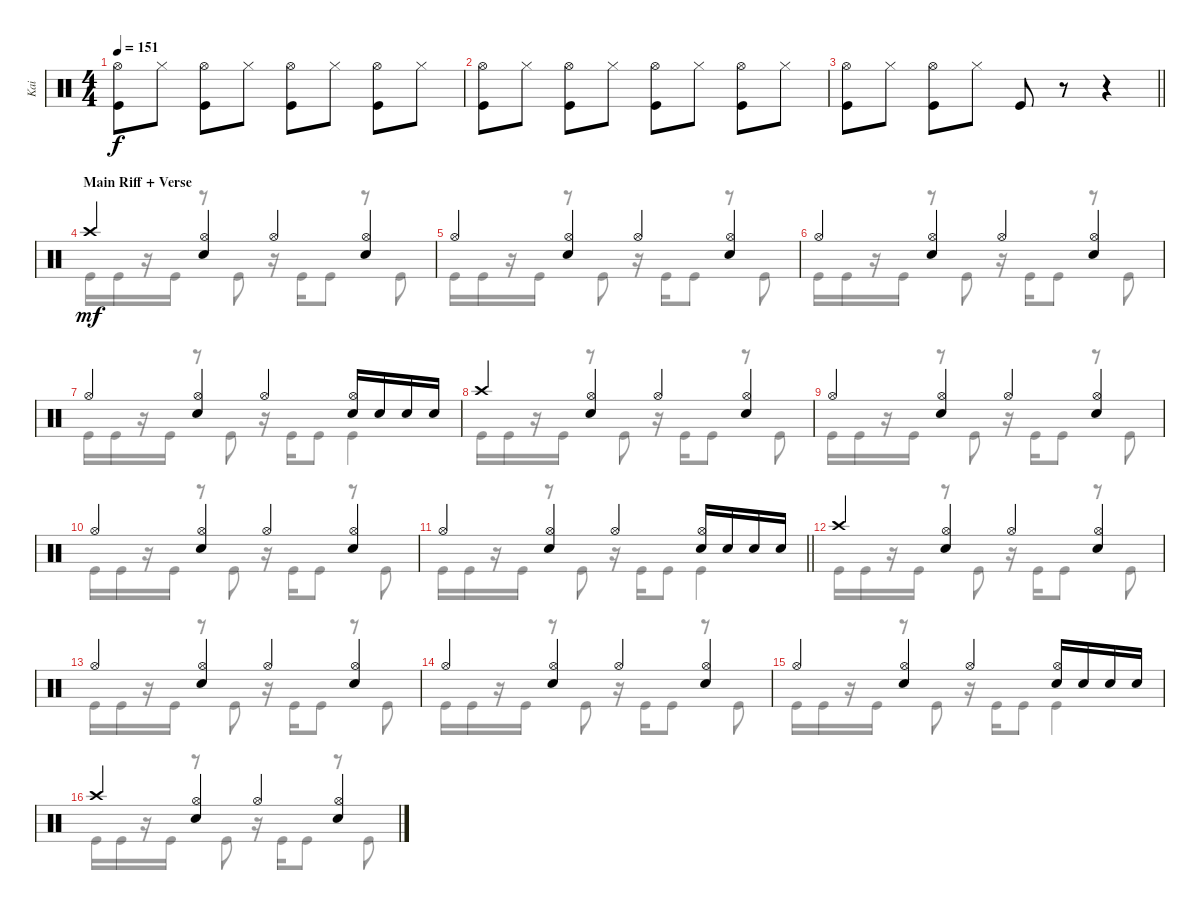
\track ("Kai" "Kai") {instrument percussion}
\staff {score}
\articulation defaults
\voice
\ts (4 4)
\tempo 151
\clef neutral
\ks c
("Hi-Hat (open)" "Kick (hit)").8{dy f} "Hi-Hat (closed)".8 ("Hi-Hat (open)" "Kick (hit)").8 "Hi-Hat (closed)".8 ("Hi-Hat (open)" "Kick (hit)").8 "Hi-Hat (closed)".8 ("Hi-Hat (open)" "Kick (hit)").8 "Hi-Hat (closed)".8 |
("Hi-Hat (open)" "Kick (hit)").8 "Hi-Hat (closed)".8 ("Hi-Hat (open)" "Kick (hit)").8 "Hi-Hat (closed)".8 ("Hi-Hat (open)" "Kick (hit)").8 "Hi-Hat (closed)".8 ("Hi-Hat (open)" "Kick (hit)").8 "Hi-Hat (closed)".8 |
\barLineRight lightlight
("Hi-Hat (open)" "Kick (hit)").8 "Hi-Hat (closed)".8 ("Hi-Hat (open)" "Kick (hit)").8 "Hi-Hat (closed)".8 "Kick (hit)".8 r.8 r.4 |
\section ("" "Main Riff + Verse")
"Crash high (hit)".4{dy mf} ("Hi-Hat (open)" "Electric Snare (hit)").4 "Hi-Hat (open)".4 ("Hi-Hat (open)" "Electric Snare (hit)").4 |
"Hi-Hat (open)".4 ("Hi-Hat (open)" "Electric Snare (hit)").4 "Hi-Hat (open)".4 ("Hi-Hat (open)" "Electric Snare (hit)").4 |
"Hi-Hat (open)".4 ("Hi-Hat (open)" "Electric Snare (hit)").4 "Hi-Hat (open)".4 ("Hi-Hat (open)" "Electric Snare (hit)").4 |
"Hi-Hat (open)".4 ("Hi-Hat (open)" "Electric Snare (hit)").4 "Hi-Hat (open)".4 ("Hi-Hat (open)" "Electric Snare (hit)").16 "Electric Snare (hit)".16 "Electric Snare (hit)".16 "Electric Snare (hit)".16 |
"Crash high (hit)".4 ("Hi-Hat (open)" "Electric Snare (hit)").4 "Hi-Hat (open)".4 ("Hi-Hat (open)" "Electric Snare (hit)").4 |
"Hi-Hat (open)".4 ("Hi-Hat (open)" "Electric Snare (hit)").4 "Hi-Hat (open)".4 ("Hi-Hat (open)" "Electric Snare (hit)").4 |
"Hi-Hat (open)".4 ("Hi-Hat (open)" "Electric Snare (hit)").4 "Hi-Hat (open)".4 ("Hi-Hat (open)" "Electric Snare (hit)").4 |
\barLineRight lightlight "Hi-Hat (open)".4
("Hi-Hat (open)" "Electric Snare (hit)").4 "Hi-Hat (open)".4 ("Hi-Hat (open)" "Electric Snare (hit)").16 "Electric Snare (hit)".16 "Electric Snare (hit)".16 "Electric Snare (hit)".16 |
"Crash high (hit)".4 ("Hi-Hat (open)" "Electric Snare (hit)").4 "Hi-Hat (open)".4 ("Hi-Hat (open)" "Electric Snare (hit)").4 |
"Hi-Hat (open)".4 ("Hi-Hat (open)" "Electric Snare (hit)").4 "Hi-Hat (open)".4 ("Hi-Hat (open)" "Electric Snare (hit)").4 |
"Hi-Hat (open)".4 ("Hi-Hat (open)" "Electric Snare (hit)").4 "Hi-Hat (open)".4 ("Hi-Hat (open)" "Electric Snare (hit)").4 |
"Hi-Hat (open)".4 ("Hi-Hat (open)" "Electric Snare (hit)").4 "Hi-Hat (open)".4 ("Hi-Hat (open)" "Electric Snare (hit)").16 "Electric Snare (hit)".16 "Electric Snare (hit)".16 "Electric Snare (hit)".16 |
"Crash high (hit)".4 ("Hi-Hat (open)" "Electric Snare (hit)").4 "Hi-Hat (open)".4 ("Hi-Hat (open)" "Electric Snare (hit)").4
\voice
\clef neutral
\ottava regular
\simile none
\ks c
|
|
\barLineRight lightlight
|
"Kick (hit)".16{dy mf} "Kick (hit)".16 r.16 "Kick (hit)".16 r.8 "Kick (hit)".8 r.16 "Kick (hit)".16 "Kick (hit)".8 r.8 "Kick (hit)".8 |
"Kick (hit)".16 "Kick (hit)".16 r.16 "Kick (hit)".16 r.8 "Kick (hit)".8 r.16 "Kick (hit)".16 "Kick (hit)".8 r.8 "Kick (hit)".8 |
"Kick (hit)".16 "Kick (hit)".16 r.16 "Kick (hit)".16 r.8 "Kick (hit)".8 r.16 "Kick (hit)".16 "Kick (hit)".8 r.8 "Kick (hit)".8 |
"Kick (hit)".16 "Kick (hit)".16 r.16 "Kick (hit)".16 r.8 "Kick (hit)".8 r.16 "Kick (hit)".16 "Kick (hit)".8 "Kick (hit)".4 |
"Kick (hit)".16 "Kick (hit)".16 r.16 "Kick (hit)".16 r.8 "Kick (hit)".8 r.16 "Kick (hit)".16 "Kick (hit)".8 r.8 "Kick (hit)".8 |
"Kick (hit)".16 "Kick (hit)".16 r.16 "Kick (hit)".16 r.8 "Kick (hit)".8 r.16 "Kick (hit)".16 "Kick (hit)".8 r.8 "Kick (hit)".8 |
"Kick (hit)".16 "Kick (hit)".16 r.16 "Kick (hit)".16 r.8 "Kick (hit)".8 r.16 "Kick (hit)".16 "Kick (hit)".8 r.8 "Kick (hit)".8 |
\barLineRight lightlight "Kick (hit)".16 "Kick (hit)".16
r.16 "Kick (hit)".16 r.8 "Kick (hit)".8 r.16 "Kick (hit)".16 "Kick (hit)".8 "Kick (hit)".4 |
"Kick (hit)".16 "Kick (hit)".16 r.16 "Kick (hit)".16 r.8 "Kick (hit)".8 r.16 "Kick (hit)".16 "Kick (hit)".8 r.8 "Kick (hit)".8 |
"Kick (hit)".16 "Kick (hit)".16 r.16 "Kick (hit)".16 r.8 "Kick (hit)".8 r.16 "Kick (hit)".16 "Kick (hit)".8 r.8 "Kick (hit)".8 |
"Kick (hit)".16 "Kick (hit)".16 r.16 "Kick (hit)".16 r.8 "Kick (hit)".8 r.16 "Kick (hit)".16 "Kick (hit)".8 r.8 "Kick (hit)".8 |
"Kick (hit)".16 "Kick (hit)".16 r.16 "Kick (hit)".16 r.8 "Kick (hit)".8 r.16 "Kick (hit)".16 "Kick (hit)".8 "Kick (hit)".4 |
"Kick (hit)".16 "Kick (hit)".16 r.16 "Kick (hit)".16 r.8 "Kick (hit)".8 r.16 "Kick (hit)".16 "Kick (hit)".8 r.8 "Kick (hit)".8
